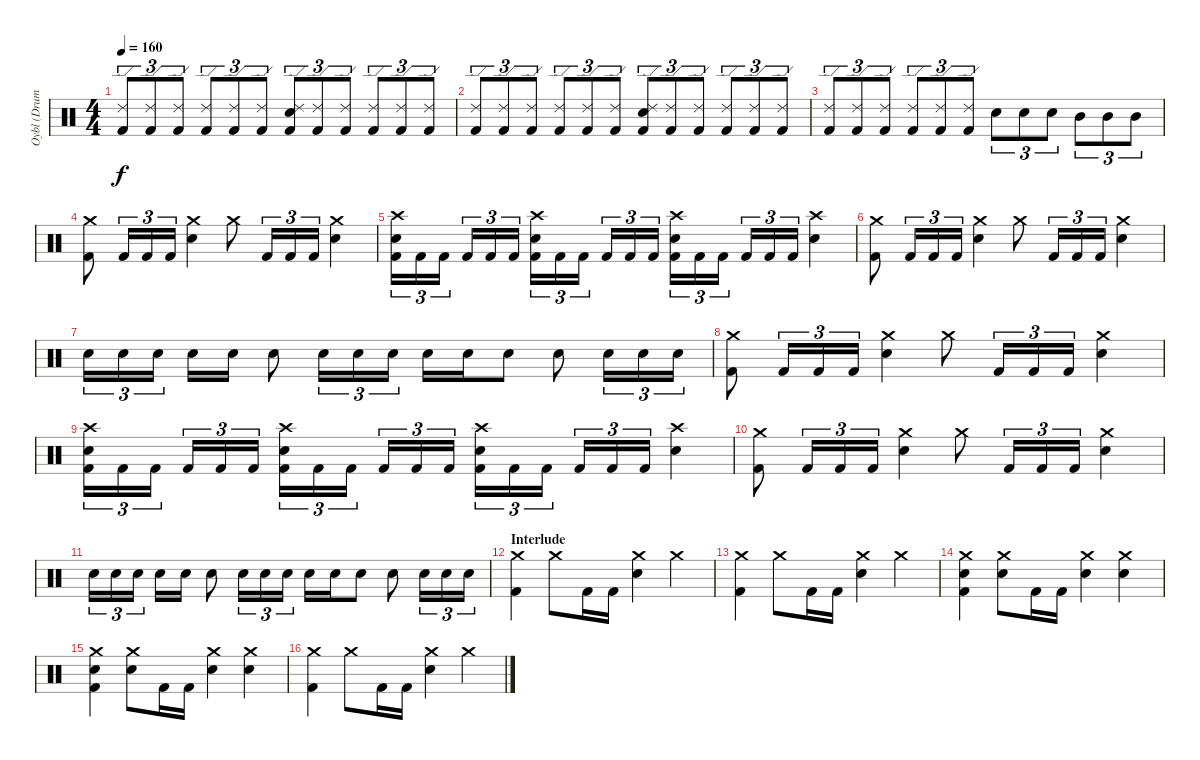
\track ("Oybl (Drums)" "Oybl (Drum") {instrument percussion}
\staff {score}
\articulation defaults
\ts (4 4)
\tempo 160
\clef neutral
\ks c
("Ride (edge) 2" "Kick (hit) 2").8{tu (3 2) dy f} ("Ride (edge) 2" "Kick (hit) 2").8{tu (3 2)} ("Ride (edge) 2" "Kick (hit) 2").8{tu (3 2)} ("Ride (edge) 2" "Kick (hit) 2").8{tu (3 2)} ("Ride (edge) 2" "Kick (hit) 2").8{tu (3 2)} ("Ride (edge) 2" "Kick (hit) 2").8{tu (3 2)} ("Ride (edge) 2" "Snare (hit) 2" "Kick (hit) 2").8{tu (3 2)} ("Ride (edge) 2" "Kick (hit) 2").8{tu (3 2)} ("Ride (edge) 2" "Kick (hit) 2").8{tu (3 2)} ("Ride (edge) 2" "Kick (hit) 2").8{tu (3 2)} ("Ride (edge) 2" "Kick (hit) 2").8{tu (3 2)} ("Ride (edge) 2" "Kick (hit) 2").8{tu (3 2)} |
("Ride (edge) 2" "Kick (hit) 2").8{tu (3 2)} ("Ride (edge) 2" "Kick (hit) 2").8{tu (3 2)} ("Ride (edge) 2" "Kick (hit) 2").8{tu (3 2)} ("Ride (edge) 2" "Kick (hit) 2").8{tu (3 2)} ("Ride (edge) 2" "Kick (hit) 2").8{tu (3 2)} ("Ride (edge) 2" "Kick (hit) 2").8{tu (3 2)} ("Ride (edge) 2" "Snare (hit) 2" "Kick (hit) 2").8{tu (3 2)} ("Ride (edge) 2" "Kick (hit) 2").8{tu (3 2)} ("Ride (edge) 2" "Kick (hit) 2").8{tu (3 2)} ("Ride (edge) 2" "Kick (hit) 2").8{tu (3 2)} ("Ride (edge) 2" "Kick (hit) 2").8{tu (3 2)} ("Ride (edge) 2" "Kick (hit) 2").8{tu (3 2)} |
("Ride (edge) 2" "Kick (hit) 2").8{tu (3 2)} ("Ride (edge) 2" "Kick (hit) 2").8{tu (3 2)} ("Ride (edge) 2" "Kick (hit) 2").8{tu (3 2)} ("Ride (edge) 2" "Kick (hit) 2").8{tu (3 2)} ("Ride (edge) 2" "Kick (hit) 2").8{tu (3 2)} ("Ride (edge) 2" "Kick (hit) 2").8{tu (3 2)} "Snare (hit) 2".8{tu (3 2)} "Snare (hit) 2".8{tu (3 2)} "Snare (hit) 2".8{tu (3 2)} "Mid Tom (hit)".8{tu (3 2)} "Mid Tom (hit)".8{tu (3 2)} "Mid Tom (hit)".8{tu (3 2)} |
("Crash medium (hit)" "Kick (hit) 2").8 "Kick (hit) 2".16{tu (3 2)} "Kick (hit) 2".16{tu (3 2)} "Kick (hit) 2".16{tu (3 2)} ("Crash medium (hit)" "Snare (hit) 2").4 "Crash medium (hit)".8 "Kick (hit) 2".16{tu (3 2)} "Kick (hit) 2".16{tu (3 2)} "Kick (hit) 2".16{tu (3 2)} ("Crash medium (hit)" "Snare (hit) 2").4 |
("Crash high (hit)" "Snare (hit) 2" "Kick (hit) 2").16{tu (3 2)} "Kick (hit) 2".16{tu (3 2)} "Kick (hit) 2".16{tu (3 2)} "Kick (hit) 2".16{tu (3 2)} "Kick (hit) 2".16{tu (3 2)} "Kick (hit) 2".16{tu (3 2)} ("Crash high (hit)" "Snare (hit) 2" "Kick (hit) 2").16{tu (3 2)} "Kick (hit) 2".16{tu (3 2)} "Kick (hit) 2".16{tu (3 2)} "Kick (hit) 2".16{tu (3 2)} "Kick (hit) 2".16{tu (3 2)} "Kick (hit) 2".16{tu (3 2)} ("Crash high (hit)" "Snare (hit) 2" "Kick (hit) 2").16{tu (3 2)} "Kick (hit) 2".16{tu (3 2)} "Kick (hit) 2".16{tu (3 2)} "Kick (hit) 2".16{tu (3 2)} "Kick (hit) 2".16{tu (3 2)} "Kick (hit) 2".16{tu (3 2)} ("Crash high (hit)" "Snare (hit) 2").4 |
("Crash medium (hit)" "Kick (hit) 2").8 "Kick (hit) 2".16{tu (3 2)} "Kick (hit) 2".16{tu (3 2)} "Kick (hit) 2".16{tu (3 2)} ("Crash medium (hit)" "Snare (hit) 2").4 "Crash medium (hit)".8 "Kick (hit) 2".16{tu (3 2)} "Kick (hit) 2".16{tu (3 2)} "Kick (hit) 2".16{tu (3 2)} ("Crash medium (hit)" "Snare (hit) 2").4 |
"Snare (hit) 2".16{tu (3 2)} "Snare (hit) 2".16{tu (3 2)} "Snare (hit) 2".16{tu (3 2)} "Snare (hit) 2".16 "Snare (hit) 2".16 "Snare (hit) 2".8 "Snare (hit) 2".16{tu (3 2)} "Snare (hit) 2".16{tu (3 2)} "Snare (hit) 2".16{tu (3 2)} "Snare (hit) 2".16 "Snare (hit) 2".16 "Snare (hit) 2".8 "Snare (hit) 2".8 "Snare (hit) 2".16{tu (3 2)} "Snare (hit) 2".16{tu (3 2)} "Snare (hit) 2".16{tu (3 2)} |
("Crash medium (hit)" "Kick (hit) 2").8 "Kick (hit) 2".16{tu (3 2)} "Kick (hit) 2".16{tu (3 2)} "Kick (hit) 2".16{tu (3 2)} ("Crash medium (hit)" "Snare (hit) 2").4 "Crash medium (hit)".8 "Kick (hit) 2".16{tu (3 2)} "Kick (hit) 2".16{tu (3 2)} "Kick (hit) 2".16{tu (3 2)} ("Crash medium (hit)" "Snare (hit) 2").4 |
("Crash high (hit)" "Snare (hit) 2" "Kick (hit) 2").16{tu (3 2)} "Kick (hit) 2".16{tu (3 2)} "Kick (hit) 2".16{tu (3 2)} "Kick (hit) 2".16{tu (3 2)} "Kick (hit) 2".16{tu (3 2)} "Kick (hit) 2".16{tu (3 2)} ("Crash high (hit)" "Snare (hit) 2" "Kick (hit) 2").16{tu (3 2)} "Kick (hit) 2".16{tu (3 2)} "Kick (hit) 2".16{tu (3 2)} "Kick (hit) 2".16{tu (3 2)} "Kick (hit) 2".16{tu (3 2)} "Kick (hit) 2".16{tu (3 2)} ("Crash high (hit)" "Snare (hit) 2" "Kick (hit) 2").16{tu (3 2)} "Kick (hit) 2".16{tu (3 2)} "Kick (hit) 2".16{tu (3 2)} "Kick (hit) 2".16{tu (3 2)} "Kick (hit) 2".16{tu (3 2)} "Kick (hit) 2".16{tu (3 2)} ("Crash high (hit)" "Snare (hit) 2").4 |
("Crash medium (hit)" "Kick (hit) 2").8 "Kick (hit) 2".16{tu (3 2)} "Kick (hit) 2".16{tu (3 2)} "Kick (hit) 2".16{tu (3 2)} ("Crash medium (hit)" "Snare (hit) 2").4 "Crash medium (hit)".8 "Kick (hit) 2".16{tu (3 2)} "Kick (hit) 2".16{tu (3 2)} "Kick (hit) 2".16{tu (3 2)} ("Crash medium (hit)" "Snare (hit) 2").4 |
"Snare (hit) 2".16{tu (3 2)} "Snare (hit) 2".16{tu (3 2)} "Snare (hit) 2".16{tu (3 2)} "Snare (hit) 2".16 "Snare (hit) 2".16 "Snare (hit) 2".8 "Snare (hit) 2".16{tu (3 2)} "Snare (hit) 2".16{tu (3 2)} "Snare (hit) 2".16{tu (3 2)} "Snare (hit) 2".16 "Snare (hit) 2".16 "Snare (hit) 2".8 "Snare (hit) 2".8 "Snare (hit) 2".16{tu (3 2)} "Snare (hit) 2".16{tu (3 2)} "Snare (hit) 2".16{tu (3 2)} |
\section ("" "Interlude")
("Crash medium (hit)" "Kick (hit) 2").4 "Crash medium (hit)".8 "Kick (hit) 2".16 "Kick (hit) 2".16 ("Crash medium (hit)" "Snare (hit) 2").4 "Crash medium (hit)".4 |
("Crash medium (hit)" "Kick (hit) 2").4 "Crash medium (hit)".8 "Kick (hit) 2".16 "Kick (hit) 2".16 ("Crash medium (hit)" "Snare (hit) 2").4 "Crash medium (hit)".4 |
("Crash medium (hit)" "Snare (hit) 2" "Kick (hit) 2").4 ("Crash medium (hit)" "Snare (hit) 2").8 "Kick (hit) 2".16 "Kick (hit) 2".16 ("Crash medium (hit)" "Snare (hit) 2").4 ("Crash medium (hit)" "Snare (hit) 2").4 |
("Crash medium (hit)" "Snare (hit) 2" "Kick (hit) 2").4 ("Crash medium (hit)" "Snare (hit) 2").8 "Kick (hit) 2".16 "Kick (hit) 2".16 ("Crash medium (hit)" "Snare (hit) 2").4 ("Crash medium (hit)" "Snare (hit) 2").4 |
("Crash medium (hit)" "Kick (hit) 2").4 "Crash medium (hit)".8 "Kick (hit) 2".16 "Kick (hit) 2".16 ("Crash medium (hit)" "Snare (hit) 2").4 "Crash medium (hit)".4
